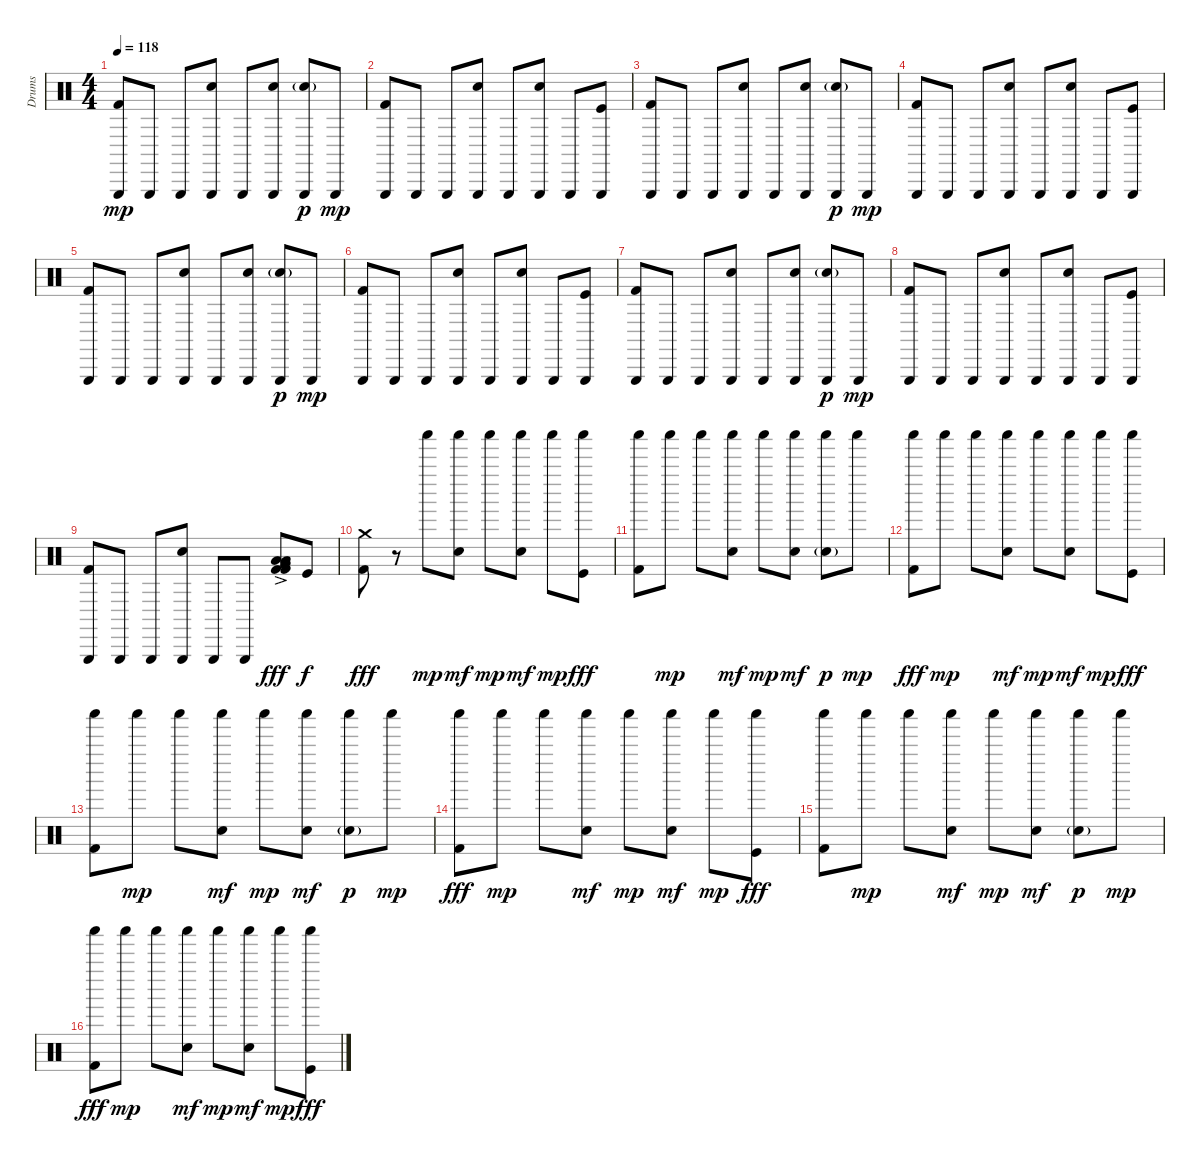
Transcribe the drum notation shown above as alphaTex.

\track ("Drums" "Drums") {instrument percussion}
\staff {score}
\articulation defaults
\ts (4 4)
\tempo 118
\clef neutral
\ks c
("Triangle (hit)" "Kick (hit) 2").8{dy mp} "Triangle (hit)".8 "Triangle (hit)".8 ("Triangle (hit)" "Electric Snare (hit)").8 "Triangle (hit)".8 ("Triangle (hit)" "Electric Snare (hit)").8 ("Triangle (hit)" "Electric Snare (hit)"{g}).8{dy p} "Triangle (hit)".8{dy mp} |
("Triangle (hit)" "Kick (hit) 2").8 "Triangle (hit)".8 "Triangle (hit)".8 ("Triangle (hit)" "Electric Snare (hit)").8 "Triangle (hit)".8 ("Triangle (hit)" "Electric Snare (hit)").8 "Triangle (hit)".8 ("Triangle (hit)" "Kick (hit)").8 |
("Triangle (hit)" "Kick (hit) 2").8 "Triangle (hit)".8 "Triangle (hit)".8 ("Triangle (hit)" "Electric Snare (hit)").8 "Triangle (hit)".8 ("Triangle (hit)" "Electric Snare (hit)").8 ("Triangle (hit)" "Electric Snare (hit)"{g}).8{dy p} "Triangle (hit)".8{dy mp} |
("Triangle (hit)" "Kick (hit) 2").8 "Triangle (hit)".8 "Triangle (hit)".8 ("Triangle (hit)" "Electric Snare (hit)").8 "Triangle (hit)".8 ("Triangle (hit)" "Electric Snare (hit)").8 "Triangle (hit)".8 ("Triangle (hit)" "Kick (hit)").8 |
("Triangle (hit)" "Kick (hit) 2").8 "Triangle (hit)".8 "Triangle (hit)".8 ("Triangle (hit)" "Electric Snare (hit)").8 "Triangle (hit)".8 ("Triangle (hit)" "Electric Snare (hit)").8 ("Triangle (hit)" "Electric Snare (hit)"{g}).8{dy p} "Triangle (hit)".8{dy mp} |
("Triangle (hit)" "Kick (hit) 2").8 "Triangle (hit)".8 "Triangle (hit)".8 ("Triangle (hit)" "Electric Snare (hit)").8 "Triangle (hit)".8 ("Triangle (hit)" "Electric Snare (hit)").8 "Triangle (hit)".8 ("Triangle (hit)" "Kick (hit)").8 |
("Triangle (hit)" "Kick (hit) 2").8 "Triangle (hit)".8 "Triangle (hit)".8 ("Triangle (hit)" "Electric Snare (hit)").8 "Triangle (hit)".8 ("Triangle (hit)" "Electric Snare (hit)").8 ("Triangle (hit)" "Electric Snare (hit)"{g}).8{dy p} "Triangle (hit)".8{dy mp} |
("Triangle (hit)" "Kick (hit) 2").8 "Triangle (hit)".8 "Triangle (hit)".8 ("Triangle (hit)" "Electric Snare (hit)").8 "Triangle (hit)".8 ("Triangle (hit)" "Electric Snare (hit)").8 "Triangle (hit)".8 ("Triangle (hit)" "Kick (hit)").8 |
("Triangle (hit)" "Kick (hit) 2").8 "Triangle (hit)".8 "Triangle (hit)".8 ("Triangle (hit)" "Electric Snare (hit)").8 "Triangle (hit)".8 "Triangle (hit)".8 ("Low Floor Tom (hit)"{ac} "Kick (hit) 2"{ac} "Kick (hit) 2"{ac} "Low Floor Tom (hit)"{ac} "Very Low Tom (hit)"{ac}).8{dy fff} "Kick (hit)".8{dy f} |
("Crash medium (hit)" "Kick (hit) 2").8{dy fff} r.8 "Shaker (hit)".8{dy mp} ("Shaker (hit)" "Electric Snare (hit)").8{dy mf} "Shaker (hit)".8{dy mp} ("Shaker (hit)" "Snare (hit) 2").8{dy mf} "Shaker (hit)".8{dy mp} ("Shaker (hit)" "Kick (hit)").8{dy fff} |
("Shaker (hit)" "Kick (hit) 2").8 "Shaker (hit)".8{dy mp} "Shaker (hit)".8 ("Shaker (hit)" "Electric Snare (hit)").8{dy mf} "Shaker (hit)".8{dy mp} ("Shaker (hit)" "Snare (hit) 2").8{dy mf} ("Shaker (hit)" "Electric Snare (hit)"{g}).8{dy p} "Shaker (hit)".8{dy mp} |
("Shaker (hit)" "Kick (hit) 2").8{dy fff} "Shaker (hit)".8{dy mp} "Shaker (hit)".8 ("Shaker (hit)" "Electric Snare (hit)").8{dy mf} "Shaker (hit)".8{dy mp} ("Shaker (hit)" "Snare (hit) 2").8{dy mf} "Shaker (hit)".8{dy mp} ("Shaker (hit)" "Kick (hit)").8{dy fff} |
("Shaker (hit)" "Kick (hit) 2").8 "Shaker (hit)".8{dy mp} "Shaker (hit)".8 ("Shaker (hit)" "Electric Snare (hit)").8{dy mf} "Shaker (hit)".8{dy mp} ("Shaker (hit)" "Snare (hit) 2").8{dy mf} ("Shaker (hit)" "Electric Snare (hit)"{g}).8{dy p} "Shaker (hit)".8{dy mp} |
("Shaker (hit)" "Kick (hit) 2").8{dy fff} "Shaker (hit)".8{dy mp} "Shaker (hit)".8 ("Shaker (hit)" "Electric Snare (hit)").8{dy mf} "Shaker (hit)".8{dy mp} ("Shaker (hit)" "Snare (hit) 2").8{dy mf} "Shaker (hit)".8{dy mp} ("Shaker (hit)" "Kick (hit)").8{dy fff} |
("Shaker (hit)" "Kick (hit) 2").8 "Shaker (hit)".8{dy mp} "Shaker (hit)".8 ("Shaker (hit)" "Electric Snare (hit)").8{dy mf} "Shaker (hit)".8{dy mp} ("Shaker (hit)" "Snare (hit) 2").8{dy mf} ("Shaker (hit)" "Electric Snare (hit)"{g}).8{dy p} "Shaker (hit)".8{dy mp} |
("Shaker (hit)" "Kick (hit) 2").8{dy fff} "Shaker (hit)".8{dy mp} "Shaker (hit)".8 ("Shaker (hit)" "Electric Snare (hit)").8{dy mf} "Shaker (hit)".8{dy mp} ("Shaker (hit)" "Snare (hit) 2").8{dy mf} "Shaker (hit)".8{dy mp} ("Shaker (hit)" "Kick (hit)").8{dy fff}
